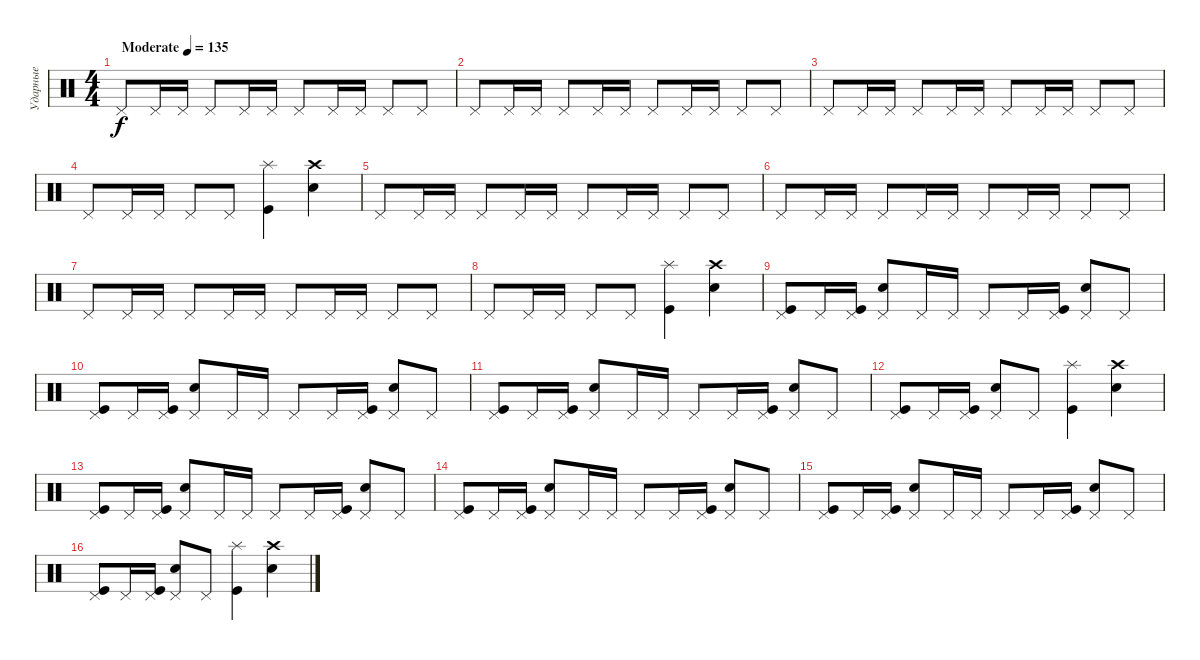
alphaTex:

\track ("Ударные" "Ударные") {instrument percussion}
\staff {score}
\articulation defaults
\ts (4 4)
\tempo (135 "Moderate")
\clef neutral
\ks c "Pedal Hi-Hat (hit)".8{dy f} "Pedal Hi-Hat (hit)".16 "Pedal Hi-Hat (hit)".16 "Pedal Hi-Hat (hit)".8 "Pedal Hi-Hat (hit)".16 "Pedal Hi-Hat (hit)".16 "Pedal Hi-Hat (hit)".8 "Pedal Hi-Hat (hit)".16 "Pedal Hi-Hat (hit)".16 "Pedal Hi-Hat (hit)".8 "Pedal Hi-Hat (hit)".8
|
"Pedal Hi-Hat (hit)".8 "Pedal Hi-Hat (hit)".16 "Pedal Hi-Hat (hit)".16 "Pedal Hi-Hat (hit)".8 "Pedal Hi-Hat (hit)".16 "Pedal Hi-Hat (hit)".16 "Pedal Hi-Hat (hit)".8 "Pedal Hi-Hat (hit)".16 "Pedal Hi-Hat (hit)".16 "Pedal Hi-Hat (hit)".8 "Pedal Hi-Hat (hit)".8 |
"Pedal Hi-Hat (hit)".8 "Pedal Hi-Hat (hit)".16 "Pedal Hi-Hat (hit)".16 "Pedal Hi-Hat (hit)".8 "Pedal Hi-Hat (hit)".16 "Pedal Hi-Hat (hit)".16 "Pedal Hi-Hat (hit)".8 "Pedal Hi-Hat (hit)".16 "Pedal Hi-Hat (hit)".16 "Pedal Hi-Hat (hit)".8 "Pedal Hi-Hat (hit)".8 |
"Pedal Hi-Hat (hit)".8 "Pedal Hi-Hat (hit)".16 "Pedal Hi-Hat (hit)".16 "Pedal Hi-Hat (hit)".8 "Pedal Hi-Hat (hit)".8 ("Splash (hit)" "Kick (hit)").4 ("Crash high (hit)" "Snare (hit) 2").4 |
"Pedal Hi-Hat (hit)".8 "Pedal Hi-Hat (hit)".16 "Pedal Hi-Hat (hit)".16 "Pedal Hi-Hat (hit)".8 "Pedal Hi-Hat (hit)".16 "Pedal Hi-Hat (hit)".16 "Pedal Hi-Hat (hit)".8 "Pedal Hi-Hat (hit)".16 "Pedal Hi-Hat (hit)".16 "Pedal Hi-Hat (hit)".8 "Pedal Hi-Hat (hit)".8 |
"Pedal Hi-Hat (hit)".8 "Pedal Hi-Hat (hit)".16 "Pedal Hi-Hat (hit)".16 "Pedal Hi-Hat (hit)".8 "Pedal Hi-Hat (hit)".16 "Pedal Hi-Hat (hit)".16 "Pedal Hi-Hat (hit)".8 "Pedal Hi-Hat (hit)".16 "Pedal Hi-Hat (hit)".16 "Pedal Hi-Hat (hit)".8 "Pedal Hi-Hat (hit)".8 |
"Pedal Hi-Hat (hit)".8 "Pedal Hi-Hat (hit)".16 "Pedal Hi-Hat (hit)".16 "Pedal Hi-Hat (hit)".8 "Pedal Hi-Hat (hit)".16 "Pedal Hi-Hat (hit)".16 "Pedal Hi-Hat (hit)".8 "Pedal Hi-Hat (hit)".16 "Pedal Hi-Hat (hit)".16 "Pedal Hi-Hat (hit)".8 "Pedal Hi-Hat (hit)".8 |
"Pedal Hi-Hat (hit)".8 "Pedal Hi-Hat (hit)".16 "Pedal Hi-Hat (hit)".16 "Pedal Hi-Hat (hit)".8 "Pedal Hi-Hat (hit)".8 ("Splash (hit)" "Kick (hit)").4 ("Crash high (hit)" "Snare (hit) 2").4 |
("Pedal Hi-Hat (hit)" "Kick (hit)").8 "Pedal Hi-Hat (hit)".16 ("Pedal Hi-Hat (hit)" "Kick (hit)").16 ("Pedal Hi-Hat (hit)" "Snare (hit) 2").8 "Pedal Hi-Hat (hit)".16 "Pedal Hi-Hat (hit)".16 "Pedal Hi-Hat (hit)".8 "Pedal Hi-Hat (hit)".16 ("Pedal Hi-Hat (hit)" "Kick (hit)").16 ("Pedal Hi-Hat (hit)" "Snare (hit) 2").8 "Pedal Hi-Hat (hit)".8 |
("Pedal Hi-Hat (hit)" "Kick (hit)").8 "Pedal Hi-Hat (hit)".16 ("Pedal Hi-Hat (hit)" "Kick (hit)").16 ("Pedal Hi-Hat (hit)" "Snare (hit) 2").8 "Pedal Hi-Hat (hit)".16 "Pedal Hi-Hat (hit)".16 "Pedal Hi-Hat (hit)".8 "Pedal Hi-Hat (hit)".16 ("Pedal Hi-Hat (hit)" "Kick (hit)").16 ("Pedal Hi-Hat (hit)" "Snare (hit) 2").8 "Pedal Hi-Hat (hit)".8 |
("Pedal Hi-Hat (hit)" "Kick (hit)").8 "Pedal Hi-Hat (hit)".16 ("Pedal Hi-Hat (hit)" "Kick (hit)").16 ("Pedal Hi-Hat (hit)" "Snare (hit) 2").8 "Pedal Hi-Hat (hit)".16 "Pedal Hi-Hat (hit)".16 "Pedal Hi-Hat (hit)".8 "Pedal Hi-Hat (hit)".16 ("Pedal Hi-Hat (hit)" "Kick (hit)").16 ("Pedal Hi-Hat (hit)" "Snare (hit) 2").8 "Pedal Hi-Hat (hit)".8 |
("Pedal Hi-Hat (hit)" "Kick (hit)").8 "Pedal Hi-Hat (hit)".16 ("Pedal Hi-Hat (hit)" "Kick (hit)").16 ("Pedal Hi-Hat (hit)" "Snare (hit) 2").8 "Pedal Hi-Hat (hit)".8 ("Splash (hit)" "Kick (hit)").4 ("Crash high (hit)" "Snare (hit) 2").4 |
("Pedal Hi-Hat (hit)" "Kick (hit)").8 "Pedal Hi-Hat (hit)".16 ("Pedal Hi-Hat (hit)" "Kick (hit)").16 ("Pedal Hi-Hat (hit)" "Snare (hit) 2").8 "Pedal Hi-Hat (hit)".16 "Pedal Hi-Hat (hit)".16 "Pedal Hi-Hat (hit)".8 "Pedal Hi-Hat (hit)".16 ("Pedal Hi-Hat (hit)" "Kick (hit)").16 ("Pedal Hi-Hat (hit)" "Snare (hit) 2").8 "Pedal Hi-Hat (hit)".8 |
("Pedal Hi-Hat (hit)" "Kick (hit)").8 "Pedal Hi-Hat (hit)".16 ("Pedal Hi-Hat (hit)" "Kick (hit)").16 ("Pedal Hi-Hat (hit)" "Snare (hit) 2").8 "Pedal Hi-Hat (hit)".16 "Pedal Hi-Hat (hit)".16 "Pedal Hi-Hat (hit)".8 "Pedal Hi-Hat (hit)".16 ("Pedal Hi-Hat (hit)" "Kick (hit)").16 ("Pedal Hi-Hat (hit)" "Snare (hit) 2").8 "Pedal Hi-Hat (hit)".8 |
("Pedal Hi-Hat (hit)" "Kick (hit)").8 "Pedal Hi-Hat (hit)".16 ("Pedal Hi-Hat (hit)" "Kick (hit)").16 ("Pedal Hi-Hat (hit)" "Snare (hit) 2").8 "Pedal Hi-Hat (hit)".16 "Pedal Hi-Hat (hit)".16 "Pedal Hi-Hat (hit)".8 "Pedal Hi-Hat (hit)".16 ("Pedal Hi-Hat (hit)" "Kick (hit)").16 ("Pedal Hi-Hat (hit)" "Snare (hit) 2").8 "Pedal Hi-Hat (hit)".8 |
("Pedal Hi-Hat (hit)" "Kick (hit)").8 "Pedal Hi-Hat (hit)".16 ("Pedal Hi-Hat (hit)" "Kick (hit)").16 ("Pedal Hi-Hat (hit)" "Snare (hit) 2").8 "Pedal Hi-Hat (hit)".8 ("Splash (hit)" "Kick (hit)").4 ("Crash high (hit)" "Snare (hit) 2").4
